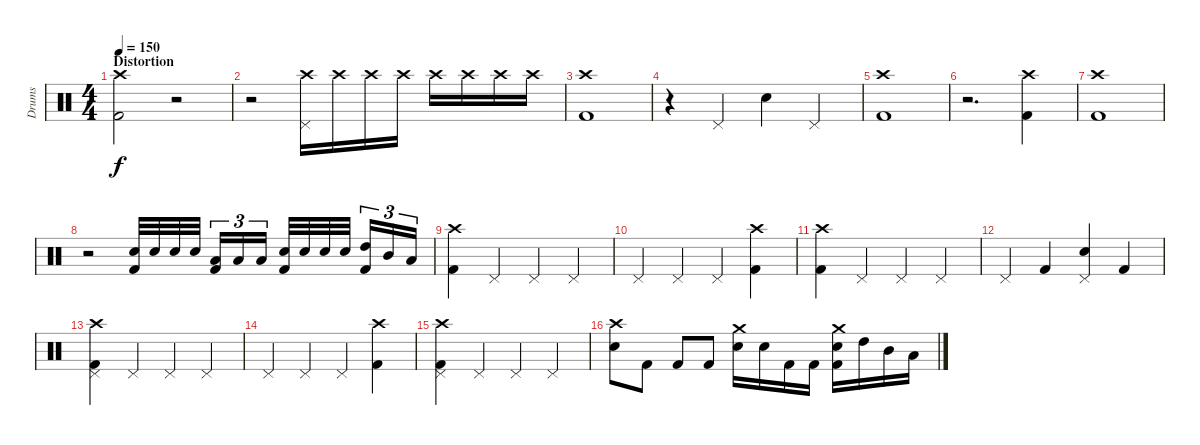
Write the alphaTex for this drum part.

\track ("Drums" "Drums") {instrument percussion}
\staff {score}
\articulation defaults
\ts (4 4)
\section ("" "Distortion")
\tempo 150
\clef neutral
\ks c
("Crash high (hit)" "Kick (hit) 2").2{dy f} r.2{volume 5} |
r.2 ("Crash high (hit)" "Pedal Hi-Hat (hit)").16{volume 16} "Crash high (hit)".16 "Crash high (hit)".16 "Crash high (hit)".16 "Crash high (hit)".16 "Crash high (hit)".16 "Crash high (hit)".16 "Crash high (hit)".16 |
("Crash high (hit)" "Kick (hit) 2").1 |
r.4 "Pedal Hi-Hat (hit)".4 "Electric Snare (hit)".4 "Pedal Hi-Hat (hit)".4 |
("Crash high (hit)" "Kick (hit) 2").1 |
r.2{d} ("Crash high (hit)" "Kick (hit) 2").4 |
("Crash high (hit)" "Kick (hit) 2").1 |
r.2 ("Electric Snare (hit)" "Kick (hit) 2").32 "Electric Snare (hit)".32 "Electric Snare (hit)".32 "Electric Snare (hit)".32 ("Low Tom (hit)" "Kick (hit) 2").16{tu (3 2)} "Low Tom (hit)".16{tu (3 2)} "Low Tom (hit)".16{tu (3 2)} ("Electric Snare (hit)" "Kick (hit) 2").32 "Electric Snare (hit)".32 "Electric Snare (hit)".32 "Electric Snare (hit)".32 ("High Tom (hit)" "Kick (hit) 2").16{tu (3 2)} "Mid Tom (hit)".16{tu (3 2)} "Low Tom (hit)".16{tu (3 2)} |
("Crash high (hit)" "Kick (hit) 2").4 "Pedal Hi-Hat (hit)".4 "Pedal Hi-Hat (hit)".4 "Pedal Hi-Hat (hit)".4 |
"Pedal Hi-Hat (hit)".4 "Pedal Hi-Hat (hit)".4 "Pedal Hi-Hat (hit)".4 ("Crash high (hit)" "Kick (hit) 2").4 |
("Crash high (hit)" "Kick (hit) 2").4 "Pedal Hi-Hat (hit)".4 "Pedal Hi-Hat (hit)".4 "Pedal Hi-Hat (hit)".4 |
"Pedal Hi-Hat (hit)".4 "Kick (hit) 2".4 ("Pedal Hi-Hat (hit)" "Electric Snare (hit)").4 "Kick (hit) 2".4 |
("Crash high (hit)" "Pedal Hi-Hat (hit)" "Kick (hit) 2").4 "Pedal Hi-Hat (hit)".4 "Pedal Hi-Hat (hit)".4 "Pedal Hi-Hat (hit)".4 |
"Pedal Hi-Hat (hit)".4 "Pedal Hi-Hat (hit)".4 "Pedal Hi-Hat (hit)".4 ("Crash high (hit)" "Kick (hit) 2").4 |
("Crash high (hit)" "Pedal Hi-Hat (hit)" "Kick (hit) 2").4 "Pedal Hi-Hat (hit)".4 "Pedal Hi-Hat (hit)".4 "Pedal Hi-Hat (hit)".4 |
("Crash high (hit)" "Electric Snare (hit)").8 "Kick (hit) 2".8 "Kick (hit) 2".8 "Kick (hit) 2".8 ("Crash medium (hit)" "Electric Snare (hit)").16 "Electric Snare (hit)".16 "Kick (hit) 2".16 "Kick (hit) 2".16 ("Crash medium (hit)" "Electric Snare (hit)" "Kick (hit) 2").16 "High Tom (hit)".16 "Mid Tom (hit)".16 "Low Tom (hit)".16
